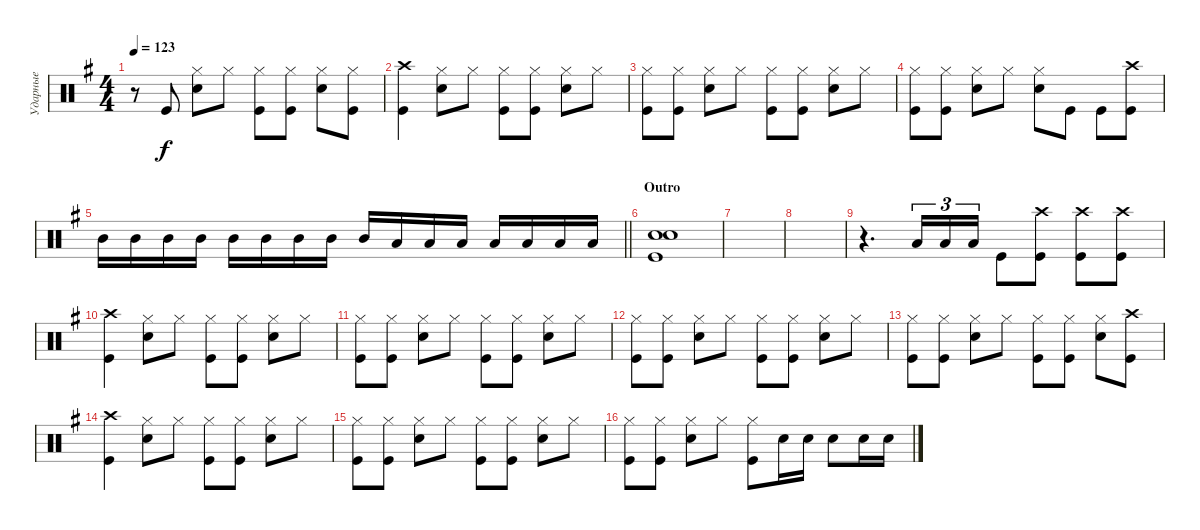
\track ("Ударные" "Ударные") {instrument percussion}
\staff {score}
\articulation defaults
\ts (4 4)
\tempo 123
\clef neutral
\ks eminor
r.8{dy f} "Kick (hit)".8 ("Snare (hit) 2" "Hi-Hat (closed)").8 "Hi-Hat (closed)".8 ("Hi-Hat (closed)" "Kick (hit)").8 ("Hi-Hat (closed)" "Kick (hit)").8 ("Hi-Hat (closed)" "Snare (hit) 2").8 ("Hi-Hat (closed)" "Kick (hit)").8 |
("Crash high (hit)" "Kick (hit)").4 ("Snare (hit) 2" "Hi-Hat (closed)").8 "Hi-Hat (closed)".8 ("Hi-Hat (closed)" "Kick (hit)").8 ("Hi-Hat (closed)" "Kick (hit)").8 ("Hi-Hat (closed)" "Snare (hit) 2").8 "Hi-Hat (closed)".8 |
("Hi-Hat (closed)" "Kick (hit)").8 ("Hi-Hat (closed)" "Kick (hit)").8 ("Snare (hit) 2" "Hi-Hat (closed)").8 "Hi-Hat (closed)".8 ("Hi-Hat (closed)" "Kick (hit)").8 ("Hi-Hat (closed)" "Kick (hit)").8 ("Hi-Hat (closed)" "Snare (hit) 2").8 "Hi-Hat (closed)".8 |
("Hi-Hat (closed)" "Kick (hit)").8 ("Hi-Hat (closed)" "Kick (hit)").8 ("Snare (hit) 2" "Hi-Hat (closed)").8 "Hi-Hat (closed)".8 ("Snare (hit) 2" "Hi-Hat (closed)").8 "Kick (hit)".8 "Kick (hit)".8 ("Kick (hit)" "Crash high (hit)").8 |
\barLineRight lightlight "Mid Tom (hit)".16 "Mid Tom (hit)".16 "Mid Tom (hit)".16 "Mid Tom (hit)".16 "Mid Tom (hit)".16 "Mid Tom (hit)".16 "Mid Tom (hit)".16 "Mid Tom (hit)".16 "Mid Tom (hit)".16 "Low Tom (hit)".16 "Low Tom (hit)".16 "Low Tom (hit)".16 "Low Tom (hit)".16 "Low Tom (hit)".16 "Low Tom (hit)".16 "Low Tom (hit)".16
|
\section ("" "Outro")
("Snare (hit) 2" "Snare (hit) 2" "Kick (hit)").1{bd 120} |
|
|
r.4{d} "Low Tom (hit)".16{tu (3 2)} "Low Tom (hit)".16{tu (3 2)} "Low Tom (hit)".16{tu (3 2)} "Kick (hit)".8 ("Kick (hit)" "Crash high (hit)").8 ("Kick (hit)" "Crash high (hit)").8 ("Kick (hit)" "Crash high (hit)").8 |
("Crash high (hit)" "Kick (hit)").4 ("Snare (hit) 2" "Hi-Hat (closed)").8 "Hi-Hat (closed)".8 ("Hi-Hat (closed)" "Kick (hit)").8 ("Hi-Hat (closed)" "Kick (hit)").8 ("Hi-Hat (closed)" "Snare (hit) 2").8 "Hi-Hat (closed)".8 |
("Hi-Hat (closed)" "Kick (hit)").8 ("Hi-Hat (closed)" "Kick (hit)").8 ("Snare (hit) 2" "Hi-Hat (closed)").8 "Hi-Hat (closed)".8 ("Hi-Hat (closed)" "Kick (hit)").8 ("Hi-Hat (closed)" "Kick (hit)").8 ("Hi-Hat (closed)" "Snare (hit) 2").8 "Hi-Hat (closed)".8 |
("Hi-Hat (closed)" "Kick (hit)").8 ("Hi-Hat (closed)" "Kick (hit)").8 ("Snare (hit) 2" "Hi-Hat (closed)").8 "Hi-Hat (closed)".8 ("Hi-Hat (closed)" "Kick (hit)").8 ("Hi-Hat (closed)" "Kick (hit)").8 ("Hi-Hat (closed)" "Snare (hit) 2").8 "Hi-Hat (closed)".8 |
("Hi-Hat (closed)" "Kick (hit)").8 ("Hi-Hat (closed)" "Kick (hit)").8 ("Snare (hit) 2" "Hi-Hat (closed)").8 "Hi-Hat (closed)".8 ("Hi-Hat (closed)" "Kick (hit)").8 ("Hi-Hat (closed)" "Kick (hit)").8 ("Hi-Hat (closed)" "Snare (hit) 2").8 ("Kick (hit)" "Crash high (hit)").8 |
("Crash high (hit)" "Kick (hit)").4 ("Snare (hit) 2" "Hi-Hat (closed)").8 "Hi-Hat (closed)".8 ("Hi-Hat (closed)" "Kick (hit)").8 ("Hi-Hat (closed)" "Kick (hit)").8 ("Hi-Hat (closed)" "Snare (hit) 2").8 "Hi-Hat (closed)".8 |
("Hi-Hat (closed)" "Kick (hit)").8 ("Hi-Hat (closed)" "Kick (hit)").8 ("Snare (hit) 2" "Hi-Hat (closed)").8 "Hi-Hat (closed)".8 ("Hi-Hat (closed)" "Kick (hit)").8 ("Hi-Hat (closed)" "Kick (hit)").8 ("Hi-Hat (closed)" "Snare (hit) 2").8 "Hi-Hat (closed)".8 |
("Hi-Hat (closed)" "Kick (hit)").8 ("Hi-Hat (closed)" "Kick (hit)").8 ("Snare (hit) 2" "Hi-Hat (closed)").8 "Hi-Hat (closed)".8 ("Hi-Hat (closed)" "Kick (hit)").8 "Snare (hit) 2".16 "Snare (hit) 2".16 "Snare (hit) 2".8 "Snare (hit) 2".16 "Snare (hit) 2".16
